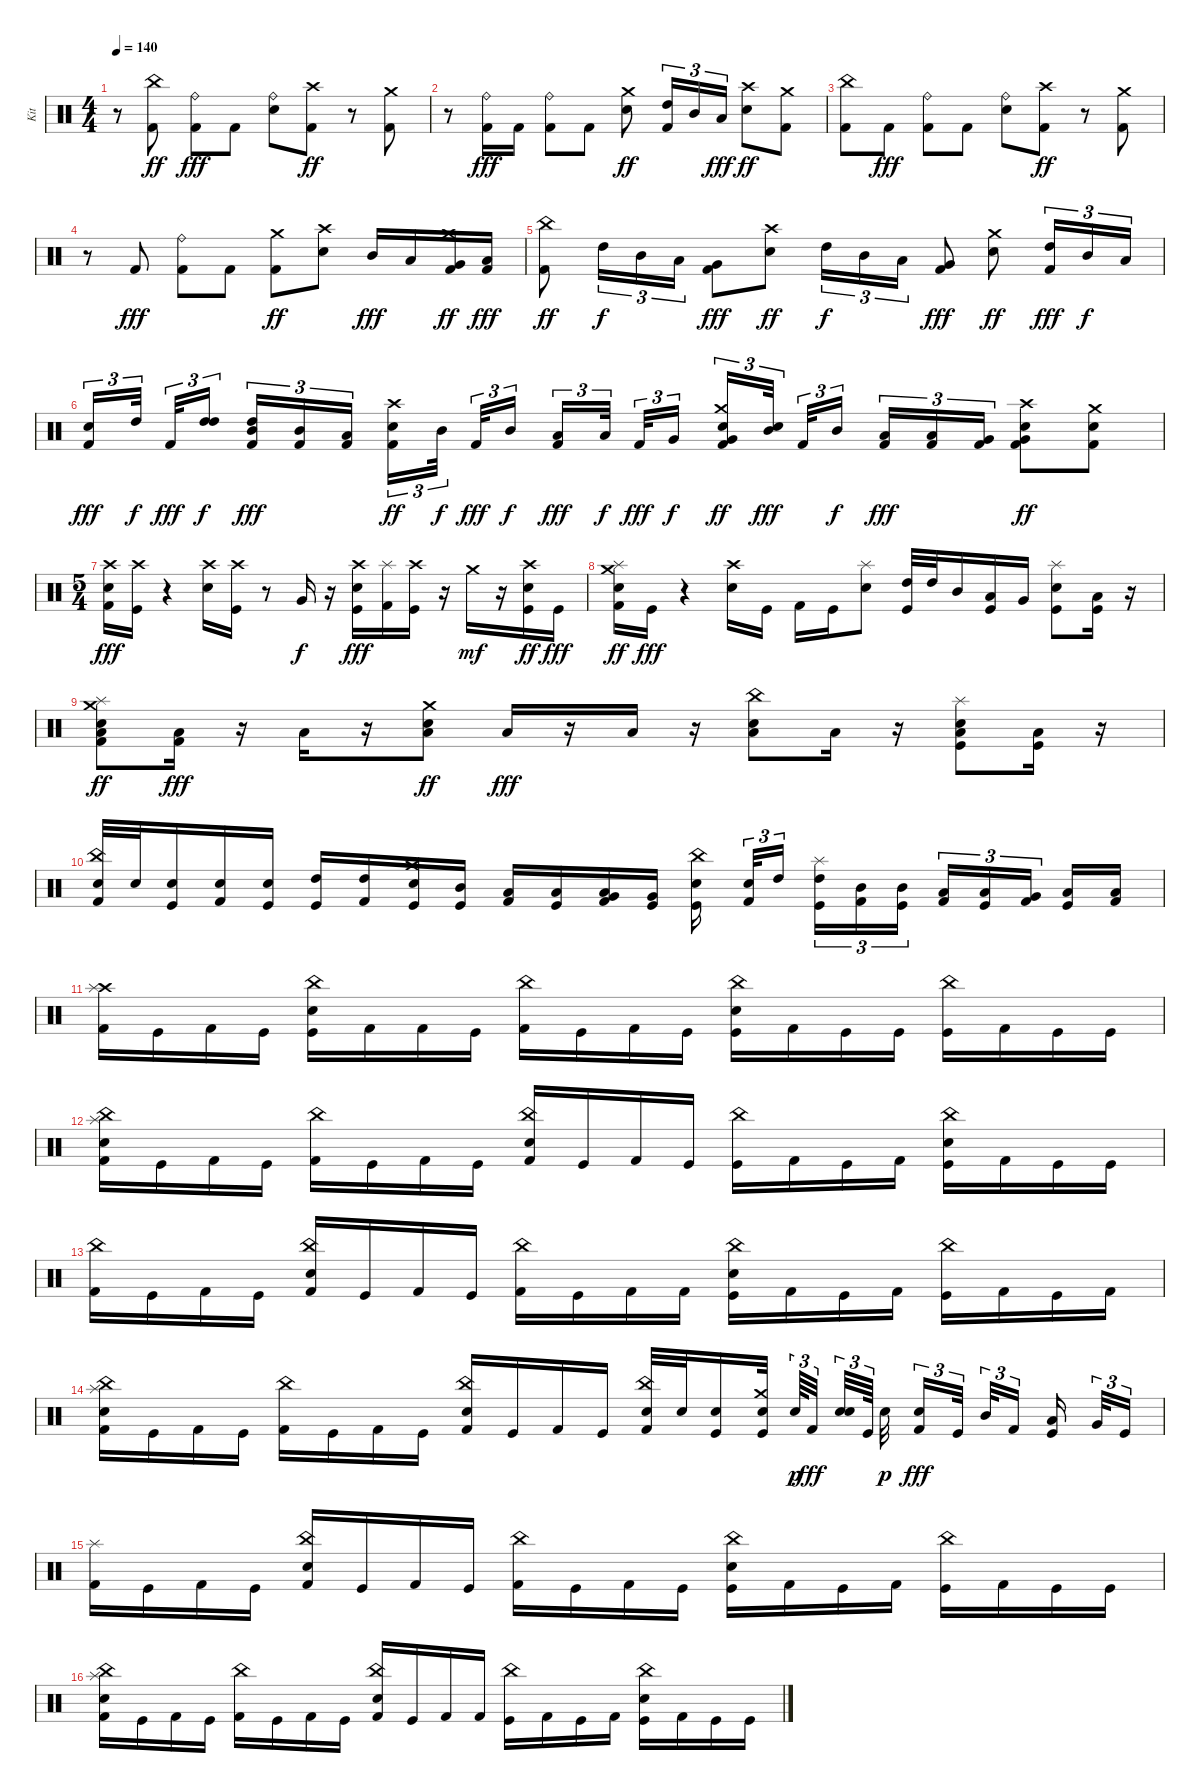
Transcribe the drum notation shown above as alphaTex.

\track ("Kit" "Kit") {instrument percussion}
\staff {score}
\articulation defaults
\ts (4 4)
\tempo 140
\clef neutral
\ks c
r.8{dy mf} ("Kick (hit) 2" "China (hit)").8{dy ff} ("Kick (hit) 2" "Ride (bell)").8{dy fff} "Kick (hit) 2".8 ("Snare (hit) 2" "Ride (bell)").8 ("Kick (hit) 2" "Crash high (hit)").8{dy ff} r.8 ("Kick (hit) 2" "Crash medium (hit)").8 |
r.8 ("Kick (hit) 2" "Ride (bell)").16{dy fff} "Kick (hit) 2".16 ("Kick (hit) 2" "Ride (bell)").8 "Kick (hit) 2".8 ("Snare (hit) 2" "Crash medium (hit)").8{dy ff} ("Kick (hit) 2" "High Tom (hit)").16{tu (3 2)} "Mid Tom (hit)".16{tu (3 2)} "Low Tom (hit)".16{tu (3 2) dy fff} ("Snare (hit) 2" "Crash high (hit)").8{dy ff} ("Kick (hit) 2" "Crash medium (hit)").8 |
("Kick (hit) 2" "China (hit)").8 "Kick (hit) 2".8{dy fff} ("Kick (hit) 2" "Ride (bell)").8 "Kick (hit) 2".8 ("Snare (hit) 2" "Ride (bell)").8 ("Kick (hit) 2" "Crash high (hit)").8{dy ff} r.8 ("Kick (hit) 2" "Crash medium (hit)").8 |
r.8 "Kick (hit) 2".8{dy fff} ("Kick (hit) 2" "Ride (bell)").8 "Kick (hit) 2".8 ("Kick (hit) 2" "Crash medium (hit)").8{dy ff} ("Snare (hit) 2" "Crash high (hit)").8 "Mid Tom (hit)".16{dy fff} "Low Tom (hit)".16 ("Kick (hit) 2" "Very Low Tom (hit)" "Crash medium (hit)").16{dy ff} ("Kick (hit) 2" "Low Floor Tom (hit)").16{dy fff} |
("Kick (hit) 2" "China (hit)").8{dy ff} "High Tom (hit)".16{tu (3 2) dy f} "Mid Tom (hit)".16{tu (3 2)} "Low Tom (hit)".16{tu (3 2)} ("Kick (hit) 2" "Very Low Tom (hit)").8{dy fff} ("Snare (hit) 2" "Crash high (hit)").8{dy ff} "High Tom (hit)".16{tu (3 2) dy f} "Mid Tom (hit)".16{tu (3 2)} "Low Tom (hit)".16{tu (3 2)} ("Kick (hit) 2" "Very Low Tom (hit)").8{dy fff} ("Snare (hit) 2" "Crash medium (hit)").8{dy ff} ("Kick (hit) 2" "High Tom (hit)").16{tu (3 2) dy fff} "Mid Tom (hit)".16{tu (3 2) dy f} "Low Tom (hit)".16{tu (3 2)} |
("Kick (hit) 2" "Snare (hit) 2").16{tu (3 2) dy fff} "High Tom (hit)".32{tu (3 2) dy f beam splitsecondary} "Kick (hit) 2".32{tu (3 2) dy fff} ("High Tom (hit)" "High Tom (hit)").16{tu (3 2) dy f beam splitsecondary} ("Kick (hit) 2" "Mid Tom (hit)" "High Tom (hit)").16{tu (3 2) dy fff} ("Kick (hit) 2" "Mid Tom (hit)").16{tu (3 2)} ("Kick (hit) 2" "Low Tom (hit)").16{tu (3 2)} ("Kick (hit) 2" "Snare (hit) 2" "Crash high (hit)").16{tu (3 2) dy ff} "Mid Tom (hit)".32{tu (3 2) dy f beam splitsecondary} "Kick (hit) 2".32{tu (3 2) dy fff} "Mid Tom (hit)".16{tu (3 2) dy f beam splitsecondary} ("Kick (hit) 2" "Low Tom (hit)").16{tu (3 2) dy fff} "Low Tom (hit)".32{tu (3 2) dy f beam splitsecondary} "Kick (hit) 2".32{tu (3 2) dy fff} "Very Low Tom (hit)".16{tu (3 2) dy f} ("Kick (hit) 2" "Snare (hit) 2" "Very Low Tom (hit)" "Crash medium (hit)").16{tu (3 2) dy ff} ("Snare (hit) 2" "Mid Tom (hit)").32{tu (3 2) dy fff beam splitsecondary} "Kick (hit) 2".32{tu (3 2)} "Mid Tom (hit)".16{tu (3 2) dy f beam splitsecondary} ("Kick (hit) 2" "Low Tom (hit)").16{tu (3 2) dy fff} ("Kick (hit) 2" "Low Tom (hit)").16{tu (3 2)} ("Kick (hit) 2" "Very Low Tom (hit)").16{tu (3 2)} ("Kick (hit) 2" "Snare (hit) 2" "Very Low Tom (hit)" "Crash high (hit)").8{dy ff} ("Kick (hit) 2" "Snare (hit) 2" "Crash medium (hit)").8 |
\ts (5 4)
("Kick (hit) 2" "Snare (hit) 2" "Crash high (hit)").16{dy fff} ("Kick (hit)" "Crash high (hit)").16 r.4 ("Snare (hit) 2" "Crash high (hit)").16 ("Kick (hit)" "Crash high (hit)").16 r.8 "Very Low Tom (hit)".16{dy f} r.16 ("Kick (hit)" "Snare (hit) 2" "Crash high (hit)").16{dy fff} ("Kick (hit) 2" "Splash (hit)").16 ("Kick (hit)" "Crash high (hit)").16 r.16 "Crash medium (hit)".16{dy mf} r.16 ("Kick (hit)" "Snare (hit) 2" "Crash high (hit)").16{dy ff} "Kick (hit)".16{dy fff} |
("Kick (hit) 2" "Snare (hit) 2" "Splash (hit)" "Crash medium (hit)").16{dy ff} "Kick (hit)".16{dy fff} r.4 ("Snare (hit) 2" "Crash high (hit)").16 "Kick (hit)".16 "Kick (hit) 2".16 "Kick (hit)".16 ("Snare (hit) 2" "Splash (hit)").8 ("Kick (hit)" "High Tom (hit)").32 "High Tom (hit)".32 "Mid Tom (hit)".16 ("Kick (hit)" "Low Tom (hit)").16 "Very Low Tom (hit)".16 ("Kick (hit)" "Snare (hit) 2" "Splash (hit)").8 ("Kick (hit)" "Low Floor Tom (hit)").16 r.16 |
("Kick (hit) 2" "Snare (hit) 2" "Low Tom (hit)" "Splash (hit)" "Crash medium (hit)").8{dy ff} ("Kick (hit) 2" "Low Floor Tom (hit)").16{dy fff} r.16 "Low Floor Tom (hit)".16 r.16 ("Snare (hit) 2" "Low Tom (hit)" "Crash medium (hit)").8{dy ff} "Low Floor Tom (hit)".16{dy fff} r.16 "Low Floor Tom (hit)".16 r.16 ("Snare (hit) 2" "Low Tom (hit)" "China (hit)").8 "Low Floor Tom (hit)".16 r.16 ("Kick (hit)" "Snare (hit) 2" "Low Tom (hit)" "Splash (hit)").8 ("Kick (hit)" "Low Floor Tom (hit)").16 r.16 |
("Kick (hit) 2" "Snare (hit) 2" "China (hit)").32 "Snare (hit) 2".32 ("Kick (hit)" "Snare (hit) 2").16 ("Kick (hit) 2" "Snare (hit) 2").16 ("Kick (hit)" "Snare (hit) 2").16 ("Kick (hit)" "High Tom (hit)").16 ("Kick (hit) 2" "High Tom (hit)").16 ("Kick (hit)" "Snare (hit) 2" "Crash medium (hit)").16 ("Kick (hit)" "Mid Tom (hit)").16 ("Kick (hit) 2" "Low Tom (hit)").16 ("Kick (hit)" "Low Tom (hit)").16 ("Kick (hit) 2" "Low Floor Tom (hit)" "Very Low Tom (hit)").16 ("Kick (hit)" "Very Low Tom (hit)").16 ("Kick (hit)" "Snare (hit) 2" "China (hit)").16{beam splitsecondary} ("Kick (hit) 2" "Snare (hit) 2").32{tu (3 2)} "High Tom (hit)".16{tu (3 2) beam splitsecondary} ("Kick (hit)" "High Tom (hit)" "Splash (hit)").16{tu (3 2)} ("Kick (hit) 2" "Mid Tom (hit)").16{tu (3 2)} ("Kick (hit)" "Mid Tom (hit)").16{tu (3 2)} ("Kick (hit) 2" "Low Tom (hit)").16{tu (3 2)} ("Kick (hit)" "Low Tom (hit)").16{tu (3 2)} ("Kick (hit) 2" "Very Low Tom (hit)").16{tu (3 2) beam splitsecondary} ("Kick (hit)" "Low Floor Tom (hit)").16 ("Kick (hit) 2" "Low Floor Tom (hit)").16 |
("Kick (hit) 2" "Crash high (hit)" "Splash (hit)").16 "Kick (hit)".16 "Kick (hit) 2".16 "Kick (hit)".16 ("Kick (hit)" "Snare (hit) 2" "China (hit)").16 "Kick (hit) 2".16 "Kick (hit) 2".16 "Kick (hit)".16 ("Kick (hit) 2" "China (hit)").16 "Kick (hit)".16 "Kick (hit) 2".16 "Kick (hit)".16 ("Kick (hit)" "Snare (hit) 2" "China (hit)").16 "Kick (hit) 2".16 "Kick (hit)".16 "Kick (hit)".16 ("Kick (hit)" "China (hit)").16 "Kick (hit) 2".16 "Kick (hit)".16 "Kick (hit)".16 |
("Kick (hit) 2" "Snare (hit) 2" "China (hit)" "Splash (hit)").16 "Kick (hit)".16 "Kick (hit) 2".16 "Kick (hit)".16 ("Kick (hit) 2" "China (hit)").16 "Kick (hit)".16 "Kick (hit) 2".16 "Kick (hit)".16 ("Kick (hit) 2" "Snare (hit) 2" "China (hit)").16 "Kick (hit)".16 "Kick (hit) 2".16 "Kick (hit)".16 ("Kick (hit)" "China (hit)").16 "Kick (hit) 2".16 "Kick (hit)".16 "Kick (hit) 2".16 ("Kick (hit)" "Snare (hit) 2" "China (hit)").16 "Kick (hit) 2".16 "Kick (hit)".16 "Kick (hit)".16 |
("Kick (hit) 2" "China (hit)").16 "Kick (hit)".16 "Kick (hit) 2".16 "Kick (hit)".16 ("Kick (hit) 2" "Snare (hit) 2" "China (hit)").16 "Kick (hit)".16 "Kick (hit) 2".16 "Kick (hit)".16 ("Kick (hit) 2" "China (hit)").16 "Kick (hit)".16 "Kick (hit) 2".16 "Kick (hit) 2".16 ("Kick (hit)" "Snare (hit) 2" "China (hit)").16 "Kick (hit) 2".16 "Kick (hit)".16 "Kick (hit) 2".16 ("Kick (hit)" "China (hit)").16 "Kick (hit) 2".16 "Kick (hit)".16 "Kick (hit) 2".16 |
("Kick (hit) 2" "Snare (hit) 2" "China (hit)" "Splash (hit)").16 "Kick (hit)".16 "Kick (hit) 2".16 "Kick (hit)".16 ("Kick (hit) 2" "China (hit)").16 "Kick (hit)".16 "Kick (hit) 2".16 "Kick (hit)".16 ("Kick (hit) 2" "Snare (hit) 2" "China (hit)").16 "Kick (hit)".16 "Kick (hit) 2".16 "Kick (hit)".16 ("Kick (hit) 2" "Snare (hit) 2" "China (hit)").32 "Snare (hit) 2".32 ("Kick (hit)" "Snare (hit) 2").16 ("Kick (hit)" "Snare (hit) 2" "Crash medium (hit)").32{beam splitsecondary} "Snare (hit) 2".64{tu (3 2) dy p} "Kick (hit) 2".32{tu (3 2) dy fff beam splitsecondary} ("Snare (hit) 2" "Snare (hit) 2").32{tu (3 2)} "Kick (hit)".64{tu (3 2) beam splitsecondary} "Snare (hit) 2".32{dy p} ("Kick (hit) 2" "Snare (hit) 2").16{tu (3 2) dy fff} "Kick (hit)".32{tu (3 2) beam splitsecondary} "Mid Tom (hit)".32{tu (3 2)} "Kick (hit) 2".16{tu (3 2) beam splitsecondary} ("Kick (hit)" "Low Tom (hit)").16{beam splitsecondary} "Very Low Tom (hit)".32{tu (3 2)} "Kick (hit)".16{tu (3 2)} |
("Kick (hit) 2" "Splash (hit)").16 "Kick (hit)".16 "Kick (hit) 2".16 "Kick (hit)".16 ("Kick (hit) 2" "Snare (hit) 2" "China (hit)").16 "Kick (hit)".16 "Kick (hit) 2".16 "Kick (hit)".16 ("Kick (hit) 2" "China (hit)").16 "Kick (hit)".16 "Kick (hit) 2".16 "Kick (hit)".16 ("Kick (hit)" "Snare (hit) 2" "China (hit)").16 "Kick (hit) 2".16 "Kick (hit)".16 "Kick (hit) 2".16 ("Kick (hit)" "China (hit)").16 "Kick (hit) 2".16 "Kick (hit)".16 "Kick (hit)".16 |
("Kick (hit) 2" "Snare (hit) 2" "China (hit)" "Splash (hit)").16 "Kick (hit)".16 "Kick (hit) 2".16 "Kick (hit)".16 ("Kick (hit) 2" "China (hit)").16 "Kick (hit)".16 "Kick (hit) 2".16 "Kick (hit)".16 ("Kick (hit) 2" "Snare (hit) 2" "China (hit)").16 "Kick (hit)".16 "Kick (hit) 2".16 "Kick (hit) 2".16 ("Kick (hit)" "China (hit)").16 "Kick (hit) 2".16 "Kick (hit)".16 "Kick (hit) 2".16 ("Kick (hit)" "Snare (hit) 2" "China (hit)").16 "Kick (hit) 2".16 "Kick (hit)".16 "Kick (hit)".16
